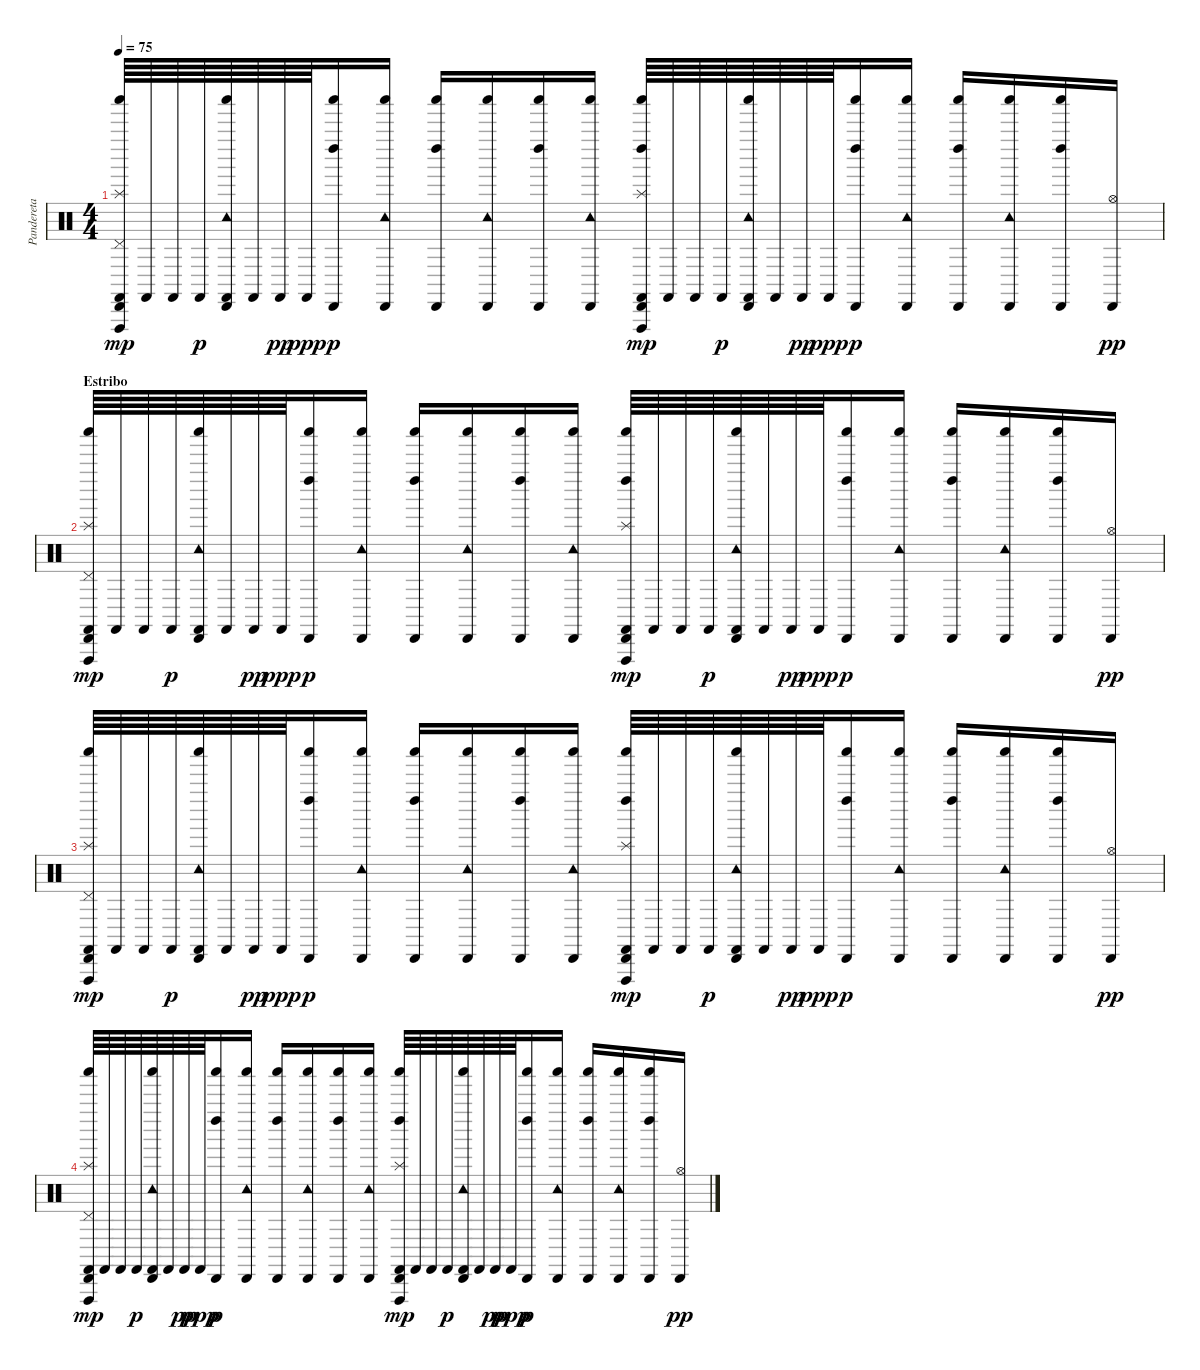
\track ("Pandereta" "Pandereta") {instrument percussion}
\staff {score}
\articulation defaults
\ts (4 4)
\tempo 75
\clef neutral
\ks c
("Cabasa (hit)" "Shaker (hit)" "Pedal Hi-Hat (hit)" "Splash (hit)" "Vibraslap (hit)" "Castanets (hit)").64{dy mp} "Castanets (hit)".64 "Castanets (hit)".64 "Castanets (hit)".64{dy p} ("Cabasa (hit)" "Tambourine (hit)" "Shaker (hit)" "Castanets (hit)").64 "Castanets (hit)".64 "Castanets (hit)".64{dy pp} "Castanets (hit)".64{dy ppp} ("Cabasa (hit)" "Left Maraca (hit)" "Shaker (hit)").16{dy p} ("Cabasa (hit)" "Tambourine (hit)" "Shaker (hit)").16 ("Cabasa (hit)" "Left Maraca (hit)" "Shaker (hit)").16 ("Cabasa (hit)" "Tambourine (hit)" "Shaker (hit)").16 ("Cabasa (hit)" "Left Maraca (hit)" "Shaker (hit)").16 ("Cabasa (hit)" "Tambourine (hit)" "Shaker (hit)").16 ("Cabasa (hit)" "Left Maraca (hit)" "Splash (hit)" "Shaker (hit)" "Vibraslap (hit)" "Castanets (hit)").64{dy mp} "Castanets (hit)".64 "Castanets (hit)".64 "Castanets (hit)".64{dy p} ("Cabasa (hit)" "Tambourine (hit)" "Shaker (hit)" "Castanets (hit)").64 "Castanets (hit)".64 "Castanets (hit)".64{dy pp} "Castanets (hit)".64{dy ppp} ("Cabasa (hit)" "Left Maraca (hit)" "Shaker (hit)").16{dy p} ("Cabasa (hit)" "Tambourine (hit)" "Shaker (hit)").16 ("Cabasa (hit)" "Left Maraca (hit)" "Shaker (hit)").16 ("Cabasa (hit)" "Tambourine (hit)" "Shaker (hit)").16 ("Cabasa (hit)" "Left Maraca (hit)" "Shaker (hit)").16 ("Cabasa (hit)" "Hi-Hat (open)").16{dy pp} |
\section ("" "Estribo")
("Cabasa (hit)" "Shaker (hit)" "Pedal Hi-Hat (hit)" "Splash (hit)" "Vibraslap (hit)" "Castanets (hit)").64{dy mp} "Castanets (hit)".64 "Castanets (hit)".64 "Castanets (hit)".64{dy p} ("Cabasa (hit)" "Tambourine (hit)" "Shaker (hit)" "Castanets (hit)").64 "Castanets (hit)".64 "Castanets (hit)".64{dy pp} "Castanets (hit)".64{dy ppp} ("Cabasa (hit)" "Left Maraca (hit)" "Shaker (hit)").16{dy p} ("Cabasa (hit)" "Tambourine (hit)" "Shaker (hit)").16 ("Cabasa (hit)" "Left Maraca (hit)" "Shaker (hit)").16 ("Cabasa (hit)" "Tambourine (hit)" "Shaker (hit)").16 ("Cabasa (hit)" "Left Maraca (hit)" "Shaker (hit)").16 ("Cabasa (hit)" "Tambourine (hit)" "Shaker (hit)").16 ("Cabasa (hit)" "Left Maraca (hit)" "Splash (hit)" "Shaker (hit)" "Vibraslap (hit)" "Castanets (hit)").64{dy mp} "Castanets (hit)".64 "Castanets (hit)".64 "Castanets (hit)".64{dy p} ("Cabasa (hit)" "Tambourine (hit)" "Shaker (hit)" "Castanets (hit)").64 "Castanets (hit)".64 "Castanets (hit)".64{dy pp} "Castanets (hit)".64{dy ppp} ("Cabasa (hit)" "Left Maraca (hit)" "Shaker (hit)").16{dy p} ("Cabasa (hit)" "Tambourine (hit)" "Shaker (hit)").16 ("Cabasa (hit)" "Left Maraca (hit)" "Shaker (hit)").16 ("Cabasa (hit)" "Tambourine (hit)" "Shaker (hit)").16 ("Cabasa (hit)" "Left Maraca (hit)" "Shaker (hit)").16 ("Cabasa (hit)" "Hi-Hat (open)").16{dy pp} |
("Cabasa (hit)" "Shaker (hit)" "Pedal Hi-Hat (hit)" "Splash (hit)" "Vibraslap (hit)" "Castanets (hit)").64{dy mp} "Castanets (hit)".64 "Castanets (hit)".64 "Castanets (hit)".64{dy p} ("Cabasa (hit)" "Tambourine (hit)" "Shaker (hit)" "Castanets (hit)").64 "Castanets (hit)".64 "Castanets (hit)".64{dy pp} "Castanets (hit)".64{dy ppp} ("Cabasa (hit)" "Left Maraca (hit)" "Shaker (hit)").16{dy p} ("Cabasa (hit)" "Tambourine (hit)" "Shaker (hit)").16 ("Cabasa (hit)" "Left Maraca (hit)" "Shaker (hit)").16 ("Cabasa (hit)" "Tambourine (hit)" "Shaker (hit)").16 ("Cabasa (hit)" "Left Maraca (hit)" "Shaker (hit)").16 ("Cabasa (hit)" "Tambourine (hit)" "Shaker (hit)").16 ("Cabasa (hit)" "Left Maraca (hit)" "Splash (hit)" "Shaker (hit)" "Vibraslap (hit)" "Castanets (hit)").64{dy mp} "Castanets (hit)".64 "Castanets (hit)".64 "Castanets (hit)".64{dy p} ("Cabasa (hit)" "Tambourine (hit)" "Shaker (hit)" "Castanets (hit)").64 "Castanets (hit)".64 "Castanets (hit)".64{dy pp} "Castanets (hit)".64{dy ppp} ("Cabasa (hit)" "Left Maraca (hit)" "Shaker (hit)").16{dy p} ("Cabasa (hit)" "Tambourine (hit)" "Shaker (hit)").16 ("Cabasa (hit)" "Left Maraca (hit)" "Shaker (hit)").16 ("Cabasa (hit)" "Tambourine (hit)" "Shaker (hit)").16 ("Cabasa (hit)" "Left Maraca (hit)" "Shaker (hit)").16 ("Cabasa (hit)" "Hi-Hat (open)").16{dy pp} |
("Cabasa (hit)" "Shaker (hit)" "Pedal Hi-Hat (hit)" "Splash (hit)" "Vibraslap (hit)" "Castanets (hit)").64{dy mp} "Castanets (hit)".64 "Castanets (hit)".64 "Castanets (hit)".64{dy p} ("Cabasa (hit)" "Tambourine (hit)" "Shaker (hit)" "Castanets (hit)").64 "Castanets (hit)".64 "Castanets (hit)".64{dy pp} "Castanets (hit)".64{dy ppp} ("Cabasa (hit)" "Left Maraca (hit)" "Shaker (hit)").16{dy p} ("Cabasa (hit)" "Tambourine (hit)" "Shaker (hit)").16 ("Cabasa (hit)" "Left Maraca (hit)" "Shaker (hit)").16 ("Cabasa (hit)" "Tambourine (hit)" "Shaker (hit)").16 ("Cabasa (hit)" "Left Maraca (hit)" "Shaker (hit)").16 ("Cabasa (hit)" "Tambourine (hit)" "Shaker (hit)").16 ("Cabasa (hit)" "Left Maraca (hit)" "Splash (hit)" "Shaker (hit)" "Vibraslap (hit)" "Castanets (hit)").64{dy mp} "Castanets (hit)".64 "Castanets (hit)".64 "Castanets (hit)".64{dy p} ("Cabasa (hit)" "Tambourine (hit)" "Shaker (hit)" "Castanets (hit)").64 "Castanets (hit)".64 "Castanets (hit)".64{dy pp} "Castanets (hit)".64{dy ppp} ("Cabasa (hit)" "Left Maraca (hit)" "Shaker (hit)").16{dy p} ("Cabasa (hit)" "Tambourine (hit)" "Shaker (hit)").16 ("Cabasa (hit)" "Left Maraca (hit)" "Shaker (hit)").16 ("Cabasa (hit)" "Tambourine (hit)" "Shaker (hit)").16 ("Cabasa (hit)" "Left Maraca (hit)" "Shaker (hit)").16 ("Cabasa (hit)" "Hi-Hat (open)").16{dy pp}
